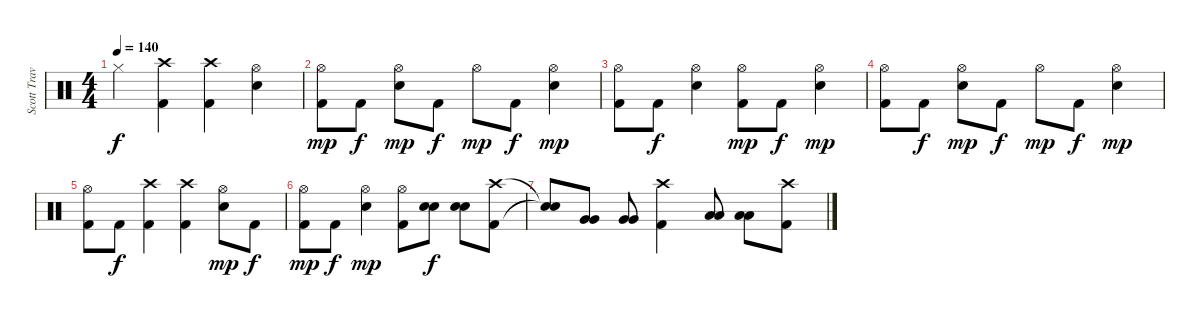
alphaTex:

\track ("Scott Travis" "Scott Trav") {instrument percussion}
\staff {score}
\articulation defaults
\ts (4 4)
\tempo 140
\clef neutral
\ks c "Hi-Hat (closed)".4{dy f volume 10}
("Crash high (hit)" "Kick (hit) 2").4 ("Crash high (hit)" "Kick (hit) 2").4 ("Hi-Hat (open)" "Snare (hit) 2").4 |
("Hi-Hat (open)" "Kick (hit) 2").8{dy mp} "Kick (hit) 2".8{dy f} ("Hi-Hat (open)" "Snare (hit) 2").8{dy mp} "Kick (hit) 2".8{dy f} "Hi-Hat (open)".8{dy mp} "Kick (hit) 2".8{dy f} ("Hi-Hat (open)" "Snare (hit) 2").4{dy mp} |
("Hi-Hat (open)" "Kick (hit) 2").8{volume 6} "Kick (hit) 2".8{dy f} ("Hi-Hat (open)" "Snare (hit) 2").4 ("Hi-Hat (open)" "Kick (hit) 2").8{dy mp} "Kick (hit) 2".8{dy f} ("Hi-Hat (open)" "Snare (hit) 2").4{dy mp} |
("Hi-Hat (open)" "Kick (hit) 2").8 "Kick (hit) 2".8{dy f} ("Hi-Hat (open)" "Snare (hit) 2").8{dy mp} "Kick (hit) 2".8{dy f} "Hi-Hat (open)".8{dy mp} "Kick (hit) 2".8{dy f} ("Hi-Hat (open)" "Snare (hit) 2").4{dy mp} |
("Hi-Hat (open)" "Kick (hit) 2").8{volume 5} "Kick (hit) 2".8{dy f} ("Crash high (hit)" "Kick (hit) 2").4 ("Crash high (hit)" "Kick (hit) 2").4 ("Hi-Hat (open)" "Snare (hit) 2").8{dy mp} "Kick (hit) 2".8{dy f} |
("Hi-Hat (open)" "Kick (hit) 2").8{dy mp volume 0} "Kick (hit) 2".8{dy f} ("Hi-Hat (open)" "Snare (hit) 2").4{dy mp} ("Hi-Hat (open)" "Kick (hit) 2").8 ("Snare (hit) 2" "Snare (hit) 2").8{dy f} ("Snare (hit) 2" "Snare (hit) 2").8 ("Crash high (hit)" "Kick (hit) 2").8 |
("Snare (hit)"{t} "Snare (hit)"{t}).8 ("Very Low Tom (hit)" "Very Low Tom (hit)").8 ("Very Low Tom (hit)" "Very Low Tom (hit)").8 ("Crash high (hit)" "Kick (hit) 2").4 ("Low Tom (hit)" "Low Tom (hit)").8 ("Low Tom (hit)" "Low Tom (hit)").8 ("Crash high (hit)" "Kick (hit) 2").8
